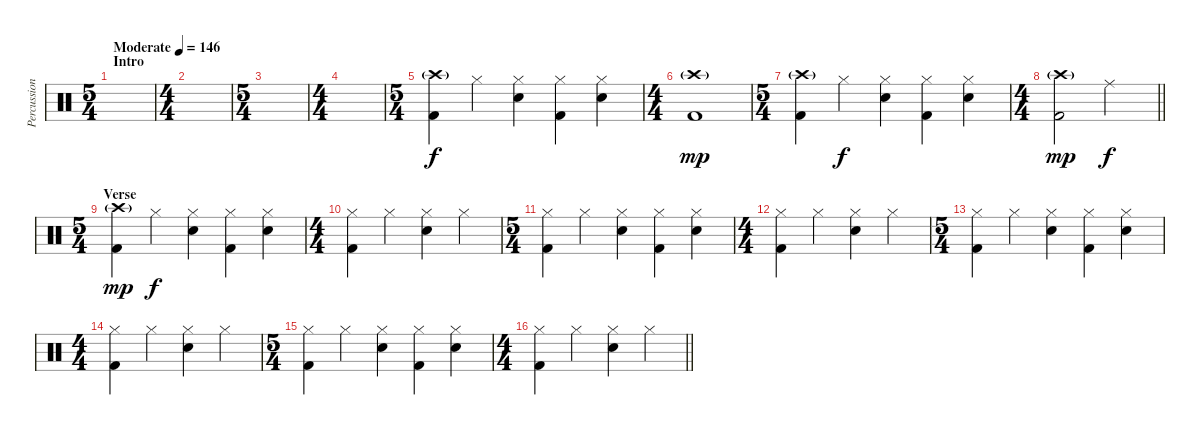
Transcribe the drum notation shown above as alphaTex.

\track ("Percussion" "Percussion") {instrument percussion}
\staff {score}
\articulation defaults
\ts (5 4)
\section ("" "Intro")
\tempo (146 "Moderate")
\clef neutral
\ks c
|
\ts (4 4)
|
\ts (5 4)
|
\ts (4 4)
|
\ts (5 4)
("Crash high (hit)"{g} "Kick (hit) 2").4 "Hi-Hat (closed)".4{dy f} ("Hi-Hat (closed)" "Electric Snare (hit)").4 ("Hi-Hat (closed)" "Kick (hit) 2").4 ("Hi-Hat (closed)" "Electric Snare (hit)").4 |
\ts (4 4)
("Crash high (hit)"{g} "Kick (hit) 2").1{dy mp} |
\ts (5 4)
("Crash high (hit)"{g} "Kick (hit) 2").4 "Hi-Hat (closed)".4{dy f} ("Hi-Hat (closed)" "Electric Snare (hit)").4 ("Hi-Hat (closed)" "Kick (hit) 2").4 ("Hi-Hat (closed)" "Electric Snare (hit)").4 |
\ts (4 4)
\barLineRight lightlight
("Crash high (hit)"{g} "Kick (hit) 2").2{dy mp} "Ride (middle)".2{dy f} |
\ts (5 4)
\section ("" "Verse")
("Crash high (hit)"{g} "Kick (hit) 2").4{dy mp} "Hi-Hat (closed)".4{dy f} ("Hi-Hat (closed)" "Electric Snare (hit)").4 ("Hi-Hat (closed)" "Kick (hit) 2").4 ("Hi-Hat (closed)" "Electric Snare (hit)").4 |
\ts (4 4)
("Hi-Hat (closed)" "Kick (hit) 2").4 "Hi-Hat (closed)".4 ("Hi-Hat (closed)" "Electric Snare (hit)").4 "Hi-Hat (closed)".4 |
\ts (5 4)
("Hi-Hat (closed)" "Kick (hit) 2").4 "Hi-Hat (closed)".4 ("Hi-Hat (closed)" "Electric Snare (hit)").4 ("Hi-Hat (closed)" "Kick (hit) 2").4 ("Hi-Hat (closed)" "Electric Snare (hit)").4 |
\ts (4 4)
("Hi-Hat (closed)" "Kick (hit) 2").4 "Hi-Hat (closed)".4 ("Hi-Hat (closed)" "Electric Snare (hit)").4 "Hi-Hat (closed)".4 |
\ts (5 4)
("Hi-Hat (closed)" "Kick (hit) 2").4 "Hi-Hat (closed)".4 ("Hi-Hat (closed)" "Electric Snare (hit)").4 ("Hi-Hat (closed)" "Kick (hit) 2").4 ("Hi-Hat (closed)" "Electric Snare (hit)").4 |
\ts (4 4)
("Hi-Hat (closed)" "Kick (hit) 2").4 "Hi-Hat (closed)".4 ("Hi-Hat (closed)" "Electric Snare (hit)").4 "Hi-Hat (closed)".4 |
\ts (5 4)
("Hi-Hat (closed)" "Kick (hit) 2").4 "Hi-Hat (closed)".4 ("Hi-Hat (closed)" "Electric Snare (hit)").4 ("Hi-Hat (closed)" "Kick (hit) 2").4 ("Hi-Hat (closed)" "Electric Snare (hit)").4 |
\ts (4 4)
\barLineRight lightlight
("Hi-Hat (closed)" "Kick (hit) 2").4 "Hi-Hat (closed)".4 ("Hi-Hat (closed)" "Electric Snare (hit)").4 "Hi-Hat (closed)".4
